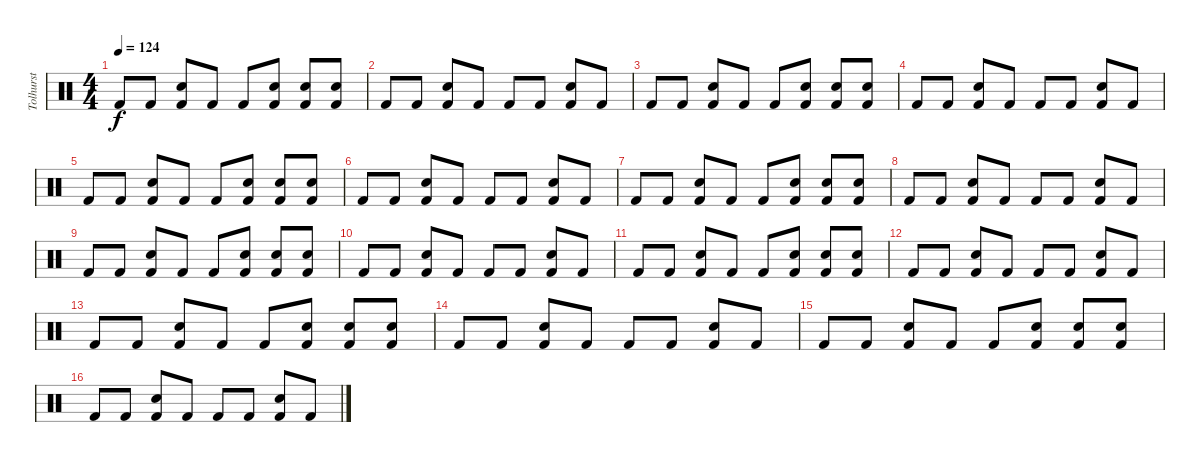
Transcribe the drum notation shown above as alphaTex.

\track ("Tolhurst" "Tolhurst") {instrument percussion}
\staff {score}
\articulation defaults
\ts (4 4)
\tempo 124
\clef neutral
\ks c "Kick (hit) 2".8{dy f} "Kick (hit) 2".8
("Kick (hit) 2" "Snare (hit) 2").8 "Kick (hit) 2".8 "Kick (hit) 2".8 ("Kick (hit) 2" "Snare (hit) 2").8 ("Kick (hit) 2" "Snare (hit) 2").8 ("Kick (hit) 2" "Snare (hit) 2").8 |
"Kick (hit) 2".8 "Kick (hit) 2".8 ("Kick (hit) 2" "Snare (hit) 2").8 "Kick (hit) 2".8 "Kick (hit) 2".8 "Kick (hit) 2".8 ("Kick (hit) 2" "Snare (hit) 2").8 "Kick (hit) 2".8 |
"Kick (hit) 2".8 "Kick (hit) 2".8 ("Kick (hit) 2" "Snare (hit) 2").8 "Kick (hit) 2".8 "Kick (hit) 2".8 ("Kick (hit) 2" "Snare (hit) 2").8 ("Kick (hit) 2" "Snare (hit) 2").8 ("Kick (hit) 2" "Snare (hit) 2").8 |
"Kick (hit) 2".8 "Kick (hit) 2".8 ("Kick (hit) 2" "Snare (hit) 2").8 "Kick (hit) 2".8 "Kick (hit) 2".8 "Kick (hit) 2".8 ("Kick (hit) 2" "Snare (hit) 2").8 "Kick (hit) 2".8 |
"Kick (hit) 2".8 "Kick (hit) 2".8 ("Kick (hit) 2" "Snare (hit) 2").8 "Kick (hit) 2".8 "Kick (hit) 2".8 ("Kick (hit) 2" "Snare (hit) 2").8 ("Kick (hit) 2" "Snare (hit) 2").8 ("Kick (hit) 2" "Snare (hit) 2").8 |
"Kick (hit) 2".8 "Kick (hit) 2".8 ("Kick (hit) 2" "Snare (hit) 2").8 "Kick (hit) 2".8 "Kick (hit) 2".8 "Kick (hit) 2".8 ("Kick (hit) 2" "Snare (hit) 2").8 "Kick (hit) 2".8 |
"Kick (hit) 2".8 "Kick (hit) 2".8 ("Kick (hit) 2" "Snare (hit) 2").8 "Kick (hit) 2".8 "Kick (hit) 2".8 ("Kick (hit) 2" "Snare (hit) 2").8 ("Kick (hit) 2" "Snare (hit) 2").8 ("Kick (hit) 2" "Snare (hit) 2").8 |
"Kick (hit) 2".8 "Kick (hit) 2".8 ("Kick (hit) 2" "Snare (hit) 2").8 "Kick (hit) 2".8 "Kick (hit) 2".8 "Kick (hit) 2".8 ("Kick (hit) 2" "Snare (hit) 2").8 "Kick (hit) 2".8 |
"Kick (hit) 2".8 "Kick (hit) 2".8 ("Kick (hit) 2" "Snare (hit) 2").8 "Kick (hit) 2".8 "Kick (hit) 2".8 ("Kick (hit) 2" "Snare (hit) 2").8 ("Kick (hit) 2" "Snare (hit) 2").8 ("Kick (hit) 2" "Snare (hit) 2").8 |
"Kick (hit) 2".8 "Kick (hit) 2".8 ("Kick (hit) 2" "Snare (hit) 2").8 "Kick (hit) 2".8 "Kick (hit) 2".8 "Kick (hit) 2".8 ("Kick (hit) 2" "Snare (hit) 2").8 "Kick (hit) 2".8 |
"Kick (hit) 2".8 "Kick (hit) 2".8 ("Kick (hit) 2" "Snare (hit) 2").8 "Kick (hit) 2".8 "Kick (hit) 2".8 ("Kick (hit) 2" "Snare (hit) 2").8 ("Kick (hit) 2" "Snare (hit) 2").8 ("Kick (hit) 2" "Snare (hit) 2").8 |
"Kick (hit) 2".8 "Kick (hit) 2".8 ("Kick (hit) 2" "Snare (hit) 2").8 "Kick (hit) 2".8 "Kick (hit) 2".8 "Kick (hit) 2".8 ("Kick (hit) 2" "Snare (hit) 2").8 "Kick (hit) 2".8 |
"Kick (hit) 2".8 "Kick (hit) 2".8 ("Kick (hit) 2" "Snare (hit) 2").8 "Kick (hit) 2".8 "Kick (hit) 2".8 ("Kick (hit) 2" "Snare (hit) 2").8 ("Kick (hit) 2" "Snare (hit) 2").8 ("Kick (hit) 2" "Snare (hit) 2").8 |
"Kick (hit) 2".8 "Kick (hit) 2".8 ("Kick (hit) 2" "Snare (hit) 2").8 "Kick (hit) 2".8 "Kick (hit) 2".8 "Kick (hit) 2".8 ("Kick (hit) 2" "Snare (hit) 2").8 "Kick (hit) 2".8 |
"Kick (hit) 2".8 "Kick (hit) 2".8 ("Kick (hit) 2" "Snare (hit) 2").8 "Kick (hit) 2".8 "Kick (hit) 2".8 ("Kick (hit) 2" "Snare (hit) 2").8 ("Kick (hit) 2" "Snare (hit) 2").8 ("Kick (hit) 2" "Snare (hit) 2").8 |
"Kick (hit) 2".8 "Kick (hit) 2".8 ("Kick (hit) 2" "Snare (hit) 2").8 "Kick (hit) 2".8 "Kick (hit) 2".8 "Kick (hit) 2".8 ("Kick (hit) 2" "Snare (hit) 2").8 "Kick (hit) 2".8
